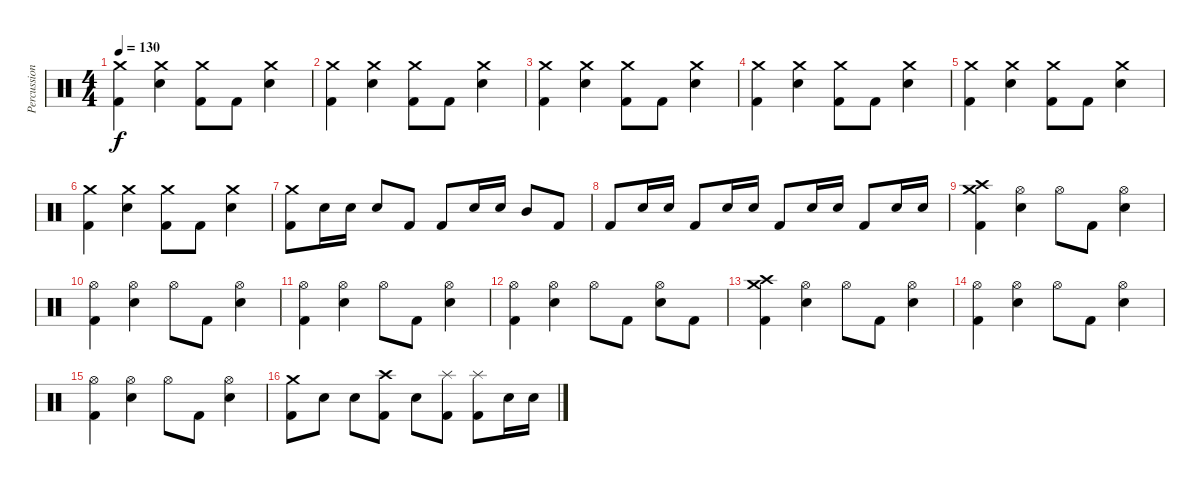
\track ("Percussion" "Percussion") {instrument percussion}
\staff {score}
\articulation defaults
\ts (4 4)
\tempo 130
\clef neutral
\ks c
("Crash medium (hit)" "Kick (hit) 2").4{dy f} ("Crash medium (hit)" "Snare (hit) 2").4 ("Crash medium (hit)" "Kick (hit) 2").8 "Kick (hit) 2".8 ("Crash medium (hit)" "Snare (hit) 2").4 |
("Crash medium (hit)" "Kick (hit) 2").4 ("Crash medium (hit)" "Snare (hit) 2").4 ("Crash medium (hit)" "Kick (hit) 2").8 "Kick (hit) 2".8 ("Crash medium (hit)" "Snare (hit) 2").4 |
("Crash medium (hit)" "Kick (hit) 2").4 ("Crash medium (hit)" "Snare (hit) 2").4 ("Crash medium (hit)" "Kick (hit) 2").8 "Kick (hit) 2".8 ("Crash medium (hit)" "Snare (hit) 2").4 |
("Crash medium (hit)" "Kick (hit) 2").4 ("Crash medium (hit)" "Snare (hit) 2").4 ("Crash medium (hit)" "Kick (hit) 2").8 "Kick (hit) 2".8 ("Crash medium (hit)" "Snare (hit) 2").4 |
("Crash medium (hit)" "Kick (hit) 2").4 ("Crash medium (hit)" "Snare (hit) 2").4 ("Crash medium (hit)" "Kick (hit) 2").8 "Kick (hit) 2".8 ("Crash medium (hit)" "Snare (hit) 2").4 |
("Crash medium (hit)" "Kick (hit) 2").4 ("Crash medium (hit)" "Snare (hit) 2").4 ("Crash medium (hit)" "Kick (hit) 2").8 "Kick (hit) 2".8 ("Crash medium (hit)" "Snare (hit) 2").4 |
("Crash medium (hit)" "Kick (hit) 2").8 "Snare (hit) 2".16 "Snare (hit) 2".16 "Snare (hit) 2".8 "Kick (hit) 2".8 "Kick (hit) 2".8 "Snare (hit) 2".16 "Snare (hit) 2".16 "Mid Tom (hit)".8 "Kick (hit) 2".8 |
"Kick (hit) 2".8 "Snare (hit) 2".16 "Snare (hit) 2".16 "Kick (hit) 2".8 "Snare (hit) 2".16 "Snare (hit) 2".16 "Kick (hit) 2".8 "Snare (hit) 2".16 "Snare (hit) 2".16 "Kick (hit) 2".8 "Snare (hit) 2".16 "Snare (hit) 2".16 |
("Crash medium (hit)" "Crash high (hit)" "Kick (hit) 2").4 ("Hi-Hat (open)" "Snare (hit) 2").4 "Hi-Hat (open)".8 "Kick (hit) 2".8 ("Hi-Hat (open)" "Snare (hit) 2").4 |
("Hi-Hat (open)" "Kick (hit) 2").4 ("Hi-Hat (open)" "Snare (hit) 2").4 "Hi-Hat (open)".8 "Kick (hit) 2".8 ("Hi-Hat (open)" "Snare (hit) 2").4 |
("Hi-Hat (open)" "Kick (hit) 2").4 ("Hi-Hat (open)" "Snare (hit) 2").4 "Hi-Hat (open)".8 "Kick (hit) 2".8 ("Hi-Hat (open)" "Snare (hit) 2").4 |
("Hi-Hat (open)" "Kick (hit) 2").4 ("Hi-Hat (open)" "Snare (hit) 2").4 "Hi-Hat (open)".8 "Kick (hit) 2".8 ("Hi-Hat (open)" "Snare (hit) 2").8 "Kick (hit) 2".8 |
("Crash medium (hit)" "Crash high (hit)" "Kick (hit) 2").4 ("Hi-Hat (open)" "Snare (hit) 2").4 "Hi-Hat (open)".8 "Kick (hit) 2".8 ("Hi-Hat (open)" "Snare (hit) 2").4 |
("Hi-Hat (open)" "Kick (hit) 2").4 ("Hi-Hat (open)" "Snare (hit) 2").4 "Hi-Hat (open)".8 "Kick (hit) 2".8 ("Hi-Hat (open)" "Snare (hit) 2").4 |
("Hi-Hat (open)" "Kick (hit) 2").4 ("Hi-Hat (open)" "Snare (hit) 2").4 "Hi-Hat (open)".8 "Kick (hit) 2".8 ("Hi-Hat (open)" "Snare (hit) 2").4 |
("Crash medium (hit)" "Kick (hit) 2").8 "Snare (hit) 2".8 "Snare (hit) 2".8 ("Crash high (hit)" "Kick (hit) 2").8 "Snare (hit) 2".8 ("Splash (hit)" "Kick (hit) 2").8 ("Splash (hit)" "Kick (hit) 2").8 "Snare (hit) 2".16 "Snare (hit) 2".16
